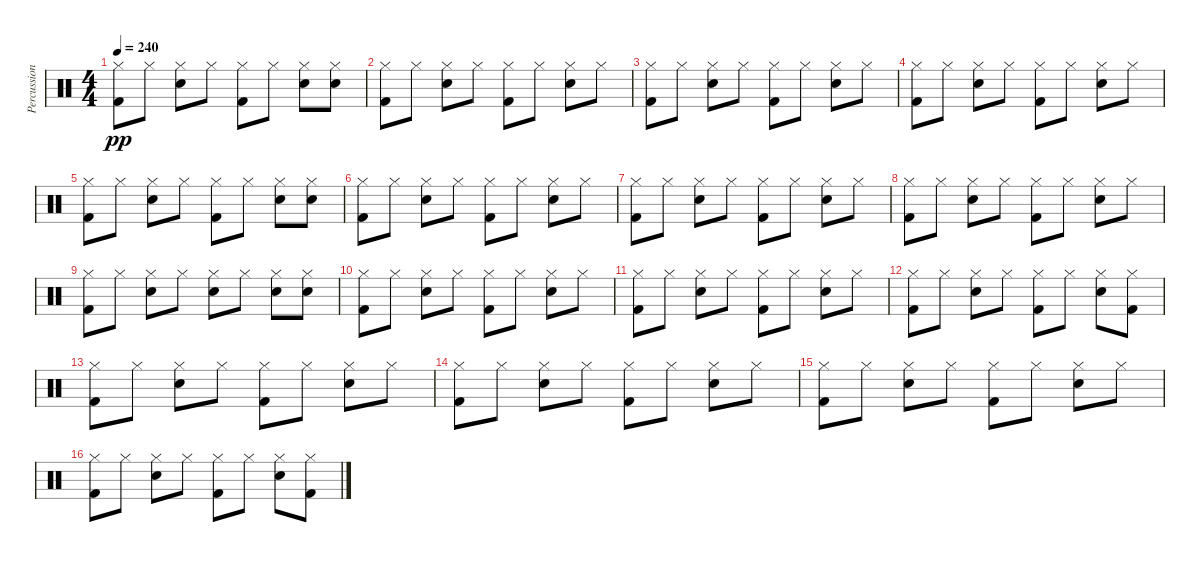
\track ("Percussion" "Percussion") {instrument percussion}
\staff {score}
\articulation defaults
\ts (4 4)
\tempo 240
\clef neutral
\ks c
("Kick (hit) 2" "Hi-Hat (closed)").8{dy pp} "Hi-Hat (closed)".8 ("Electric Snare (hit)" "Hi-Hat (closed)").8 "Hi-Hat (closed)".8 ("Kick (hit) 2" "Hi-Hat (closed)").8 "Hi-Hat (closed)".8 ("Electric Snare (hit)" "Hi-Hat (closed)").8 ("Electric Snare (hit)" "Hi-Hat (closed)").8 |
("Kick (hit) 2" "Hi-Hat (closed)").8 "Hi-Hat (closed)".8 ("Electric Snare (hit)" "Hi-Hat (closed)").8 "Hi-Hat (closed)".8 ("Kick (hit) 2" "Hi-Hat (closed)").8 "Hi-Hat (closed)".8 ("Electric Snare (hit)" "Hi-Hat (closed)").8 "Hi-Hat (closed)".8 |
("Kick (hit) 2" "Hi-Hat (closed)").8 "Hi-Hat (closed)".8 ("Electric Snare (hit)" "Hi-Hat (closed)").8 "Hi-Hat (closed)".8 ("Kick (hit) 2" "Hi-Hat (closed)").8 "Hi-Hat (closed)".8 ("Electric Snare (hit)" "Hi-Hat (closed)").8 "Hi-Hat (closed)".8 |
("Kick (hit) 2" "Hi-Hat (closed)").8 "Hi-Hat (closed)".8 ("Electric Snare (hit)" "Hi-Hat (closed)").8 "Hi-Hat (closed)".8 ("Kick (hit) 2" "Hi-Hat (closed)").8 "Hi-Hat (closed)".8 ("Electric Snare (hit)" "Hi-Hat (closed)").8 "Hi-Hat (closed)".8 |
("Kick (hit) 2" "Hi-Hat (closed)").8 "Hi-Hat (closed)".8 ("Electric Snare (hit)" "Hi-Hat (closed)").8 "Hi-Hat (closed)".8 ("Kick (hit) 2" "Hi-Hat (closed)").8 "Hi-Hat (closed)".8 ("Electric Snare (hit)" "Hi-Hat (closed)").8 ("Electric Snare (hit)" "Hi-Hat (closed)").8 |
("Kick (hit) 2" "Hi-Hat (closed)").8 "Hi-Hat (closed)".8 ("Electric Snare (hit)" "Hi-Hat (closed)").8 "Hi-Hat (closed)".8 ("Kick (hit) 2" "Hi-Hat (closed)").8 "Hi-Hat (closed)".8 ("Electric Snare (hit)" "Hi-Hat (closed)").8 "Hi-Hat (closed)".8 |
("Kick (hit) 2" "Hi-Hat (closed)").8 "Hi-Hat (closed)".8 ("Electric Snare (hit)" "Hi-Hat (closed)").8 "Hi-Hat (closed)".8 ("Kick (hit) 2" "Hi-Hat (closed)").8 "Hi-Hat (closed)".8 ("Electric Snare (hit)" "Hi-Hat (closed)").8 "Hi-Hat (closed)".8 |
("Kick (hit) 2" "Hi-Hat (closed)").8 "Hi-Hat (closed)".8 ("Electric Snare (hit)" "Hi-Hat (closed)").8 "Hi-Hat (closed)".8 ("Kick (hit) 2" "Hi-Hat (closed)").8 "Hi-Hat (closed)".8 ("Electric Snare (hit)" "Hi-Hat (closed)").8 "Hi-Hat (closed)".8 |
("Kick (hit) 2" "Hi-Hat (closed)").8 "Hi-Hat (closed)".8 ("Electric Snare (hit)" "Hi-Hat (closed)").8 "Hi-Hat (closed)".8 ("Electric Snare (hit)" "Hi-Hat (closed)").8 "Hi-Hat (closed)".8 ("Electric Snare (hit)" "Hi-Hat (closed)").8 ("Electric Snare (hit)" "Hi-Hat (closed)").8 |
("Kick (hit) 2" "Hi-Hat (closed)").8 "Hi-Hat (closed)".8 ("Electric Snare (hit)" "Hi-Hat (closed)").8 "Hi-Hat (closed)".8 ("Kick (hit) 2" "Hi-Hat (closed)").8 "Hi-Hat (closed)".8 ("Electric Snare (hit)" "Hi-Hat (closed)").8 "Hi-Hat (closed)".8 |
("Kick (hit) 2" "Hi-Hat (closed)").8 "Hi-Hat (closed)".8 ("Electric Snare (hit)" "Hi-Hat (closed)").8 "Hi-Hat (closed)".8 ("Kick (hit) 2" "Hi-Hat (closed)").8 "Hi-Hat (closed)".8 ("Electric Snare (hit)" "Hi-Hat (closed)").8 "Hi-Hat (closed)".8 |
("Kick (hit) 2" "Hi-Hat (closed)").8 "Hi-Hat (closed)".8 ("Electric Snare (hit)" "Hi-Hat (closed)").8 "Hi-Hat (closed)".8 ("Kick (hit) 2" "Hi-Hat (closed)").8 "Hi-Hat (closed)".8 ("Electric Snare (hit)" "Hi-Hat (closed)").8 ("Kick (hit) 2" "Hi-Hat (closed)").8 |
("Kick (hit) 2" "Hi-Hat (closed)").8 "Hi-Hat (closed)".8 ("Electric Snare (hit)" "Hi-Hat (closed)").8 "Hi-Hat (closed)".8 ("Kick (hit) 2" "Hi-Hat (closed)").8 "Hi-Hat (closed)".8 ("Electric Snare (hit)" "Hi-Hat (closed)").8 "Hi-Hat (closed)".8 |
("Kick (hit) 2" "Hi-Hat (closed)").8 "Hi-Hat (closed)".8 ("Electric Snare (hit)" "Hi-Hat (closed)").8 "Hi-Hat (closed)".8 ("Kick (hit) 2" "Hi-Hat (closed)").8 "Hi-Hat (closed)".8 ("Electric Snare (hit)" "Hi-Hat (closed)").8 "Hi-Hat (closed)".8 |
("Kick (hit) 2" "Hi-Hat (closed)").8 "Hi-Hat (closed)".8 ("Electric Snare (hit)" "Hi-Hat (closed)").8 "Hi-Hat (closed)".8 ("Kick (hit) 2" "Hi-Hat (closed)").8 "Hi-Hat (closed)".8 ("Electric Snare (hit)" "Hi-Hat (closed)").8 "Hi-Hat (closed)".8 |
("Kick (hit) 2" "Hi-Hat (closed)").8 "Hi-Hat (closed)".8 ("Electric Snare (hit)" "Hi-Hat (closed)").8 "Hi-Hat (closed)".8 ("Kick (hit) 2" "Hi-Hat (closed)").8 "Hi-Hat (closed)".8 ("Electric Snare (hit)" "Hi-Hat (closed)").8 ("Kick (hit) 2" "Hi-Hat (closed)").8
